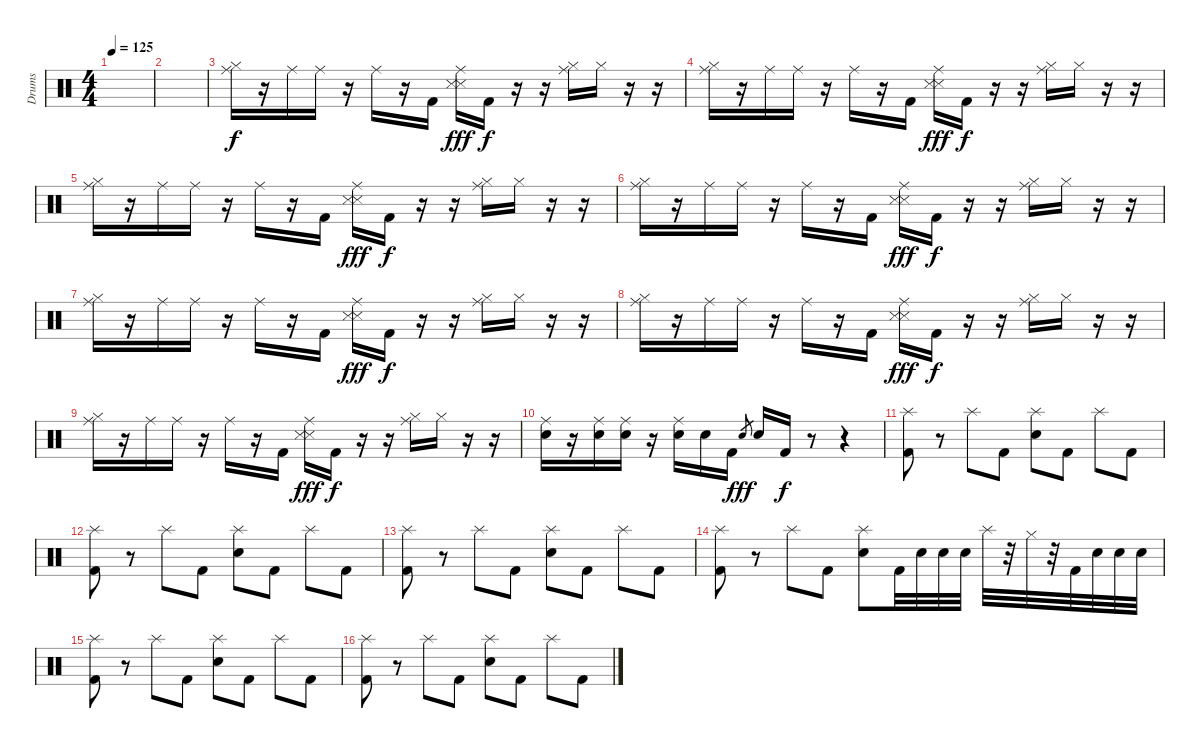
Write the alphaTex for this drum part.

\track ("Drums" "Drums") {instrument percussion}
\staff {score}
\articulation defaults
\ts (4 4)
\tempo 125
\clef neutral
\ks c
|
|
("Ride (middle)" "Hi-Hat (closed)").16 r.16 "Ride (middle)".16 "Ride (middle)".16 r.16 "Ride (middle)".16 r.16 "Kick (hit) 2".16 ("Ride (middle)" "Snare (side stick) 3" "Snare (side stick) 3").16{dy fff} "Kick (hit) 2".16{dy f} r.16 r.16 ("Ride (middle)" "Hi-Hat (closed)").16 "Hi-Hat (closed)".16 r.16 r.16 |
("Ride (middle)" "Hi-Hat (closed)").16 r.16 "Ride (middle)".16 "Ride (middle)".16 r.16 "Ride (middle)".16 r.16 "Kick (hit) 2".16 ("Ride (middle)" "Snare (side stick) 3" "Snare (side stick) 3").16{dy fff} "Kick (hit) 2".16{dy f} r.16 r.16 ("Ride (middle)" "Hi-Hat (closed)").16 "Hi-Hat (closed)".16 r.16 r.16 |
("Ride (middle)" "Hi-Hat (closed)").16 r.16 "Ride (middle)".16 "Ride (middle)".16 r.16 "Ride (middle)".16 r.16 "Kick (hit) 2".16 ("Ride (middle)" "Snare (side stick) 3" "Snare (side stick) 3").16{dy fff} "Kick (hit) 2".16{dy f} r.16 r.16 ("Ride (middle)" "Hi-Hat (closed)").16 "Hi-Hat (closed)".16 r.16 r.16 |
("Ride (middle)" "Hi-Hat (closed)").16 r.16 "Ride (middle)".16 "Ride (middle)".16 r.16 "Ride (middle)".16 r.16 "Kick (hit) 2".16 ("Ride (middle)" "Snare (side stick) 3" "Snare (side stick) 3").16{dy fff} "Kick (hit) 2".16{dy f} r.16 r.16 ("Ride (middle)" "Hi-Hat (closed)").16 "Hi-Hat (closed)".16 r.16 r.16 |
("Ride (middle)" "Hi-Hat (closed)").16 r.16 "Ride (middle)".16 "Ride (middle)".16 r.16 "Ride (middle)".16 r.16 "Kick (hit) 2".16 ("Ride (middle)" "Snare (side stick) 3" "Snare (side stick) 3").16{dy fff} "Kick (hit) 2".16{dy f} r.16 r.16 ("Ride (middle)" "Hi-Hat (closed)").16 "Hi-Hat (closed)".16 r.16 r.16 |
("Ride (middle)" "Hi-Hat (closed)").16 r.16 "Ride (middle)".16 "Ride (middle)".16 r.16 "Ride (middle)".16 r.16 "Kick (hit) 2".16 ("Ride (middle)" "Snare (side stick) 3" "Snare (side stick) 3").16{dy fff} "Kick (hit) 2".16{dy f} r.16 r.16 ("Ride (middle)" "Hi-Hat (closed)").16 "Hi-Hat (closed)".16 r.16 r.16 |
("Ride (middle)" "Hi-Hat (closed)").16 r.16 "Ride (middle)".16 "Ride (middle)".16 r.16 "Ride (middle)".16 r.16 "Kick (hit) 2".16 ("Ride (middle)" "Snare (side stick) 3" "Snare (side stick) 3").16{dy fff} "Kick (hit) 2".16{dy f} r.16 r.16 ("Ride (middle)" "Hi-Hat (closed)").16 "Hi-Hat (closed)".16 r.16 r.16 |
("Ride (middle)" "Electric Snare (hit)").16 r.16 ("Ride (middle)" "Electric Snare (hit)").16 ("Ride (middle)" "Electric Snare (hit)").16 r.16 ("Ride (middle)" "Electric Snare (hit)").16 "Electric Snare (hit)".16 "Kick (hit) 2".16 "Electric Snare (hit)".8{gr dy fff} "Electric Snare (hit)".16 "Kick (hit) 2".16{dy f} r.8 r.4 |
("Splash (hit)" "Kick (hit) 2").8 r.8 "Splash (hit)".8 "Kick (hit) 2".8 ("Splash (hit)" "Snare (hit) 2").8 "Kick (hit) 2".8 "Splash (hit)".8 "Kick (hit) 2".8 |
("Splash (hit)" "Kick (hit) 2").8 r.8 "Splash (hit)".8 "Kick (hit) 2".8 ("Splash (hit)" "Snare (hit) 2").8 "Kick (hit) 2".8 "Splash (hit)".8 "Kick (hit) 2".8 |
("Splash (hit)" "Kick (hit) 2").8 r.8 "Splash (hit)".8 "Kick (hit) 2".8 ("Splash (hit)" "Snare (hit) 2").8 "Kick (hit) 2".8 "Splash (hit)".8 "Kick (hit) 2".8 |
("Splash (hit)" "Kick (hit) 2").8 r.8 "Splash (hit)".8 "Kick (hit) 2".8 ("Splash (hit)" "Snare (hit) 2").8 "Kick (hit) 2".32 "Electric Snare (hit)".32 "Electric Snare (hit)".32 "Electric Snare (hit)".32 "Splash (hit)".32 r.32 "Hi-Hat (closed)".32 r.32 "Kick (hit) 2".32 "Electric Snare (hit)".32 "Electric Snare (hit)".32 "Electric Snare (hit)".32 |
("Splash (hit)" "Kick (hit) 2").8 r.8 "Splash (hit)".8 "Kick (hit) 2".8 ("Splash (hit)" "Snare (hit) 2").8 "Kick (hit) 2".8 "Splash (hit)".8 "Kick (hit) 2".8 |
("Splash (hit)" "Kick (hit) 2").8 r.8 "Splash (hit)".8 "Kick (hit) 2".8 ("Splash (hit)" "Snare (hit) 2").8 "Kick (hit) 2".8 "Splash (hit)".8 "Kick (hit) 2".8
